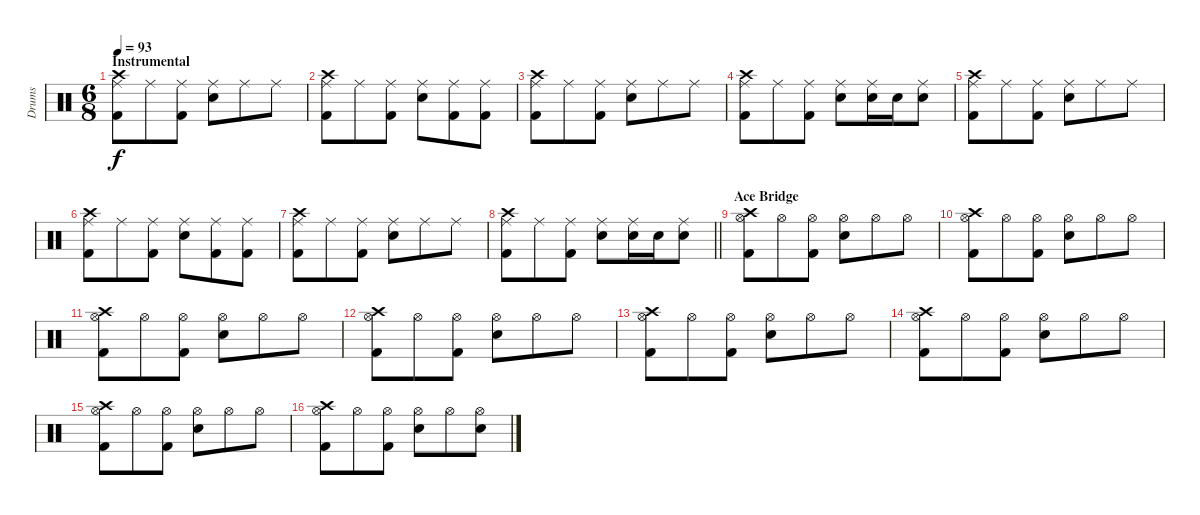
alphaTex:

\track ("Drums" "Drums") {instrument percussion}
\staff {score}
\articulation defaults
\ts (6 8)
\section ("" "Instrumental")
\tempo 93
\clef neutral
\ks c
("Crash high (hit)" "Ride (middle)" "Kick (hit) 2").8{dy f} "Ride (middle)".8 ("Ride (middle)" "Kick (hit) 2").8 ("Ride (middle)" "Snare (hit) 2").8 "Ride (middle)".8 "Ride (middle)".8 |
("Crash high (hit)" "Ride (middle)" "Kick (hit) 2").8 "Ride (middle)".8 ("Ride (middle)" "Kick (hit) 2").8 ("Ride (middle)" "Snare (hit) 2").8 ("Ride (middle)" "Kick (hit) 2").8 ("Ride (middle)" "Kick (hit) 2").8 |
("Crash high (hit)" "Ride (middle)" "Kick (hit) 2").8 "Ride (middle)".8 ("Ride (middle)" "Kick (hit) 2").8 ("Ride (middle)" "Snare (hit) 2").8 "Ride (middle)".8 "Ride (middle)".8 |
("Crash high (hit)" "Ride (middle)" "Kick (hit) 2").8 "Ride (middle)".8 ("Ride (middle)" "Kick (hit) 2").8 ("Ride (middle)" "Snare (hit) 2").8 ("Ride (middle)" "Snare (hit) 2").16 "Snare (hit) 2".16 ("Ride (middle)" "Snare (hit) 2").8 |
("Crash high (hit)" "Ride (middle)" "Kick (hit) 2").8 "Ride (middle)".8 ("Ride (middle)" "Kick (hit) 2").8 ("Ride (middle)" "Snare (hit) 2").8 "Ride (middle)".8 "Ride (middle)".8 |
("Crash high (hit)" "Ride (middle)" "Kick (hit) 2").8 "Ride (middle)".8 ("Ride (middle)" "Kick (hit) 2").8 ("Ride (middle)" "Snare (hit) 2").8 ("Ride (middle)" "Kick (hit) 2").8 ("Ride (middle)" "Kick (hit) 2").8 |
("Crash high (hit)" "Ride (middle)" "Kick (hit) 2").8 "Ride (middle)".8 ("Ride (middle)" "Kick (hit) 2").8 ("Ride (middle)" "Snare (hit) 2").8 "Ride (middle)".8 "Ride (middle)".8 |
\barLineRight lightlight
("Crash high (hit)" "Ride (middle)" "Kick (hit) 2").8 "Ride (middle)".8 ("Ride (middle)" "Kick (hit) 2").8 ("Ride (middle)" "Snare (hit) 2").8 ("Ride (middle)" "Snare (hit) 2").16 "Snare (hit) 2".16 ("Ride (middle)" "Snare (hit) 2").8 |
\section ("" "Ace Bridge")
("Crash high (hit)" "Hi-Hat (open)" "Kick (hit) 2").8 "Hi-Hat (open)".8 ("Hi-Hat (open)" "Kick (hit) 2").8 ("Hi-Hat (open)" "Snare (hit) 2").8 "Hi-Hat (open)".8 "Hi-Hat (open)".8 |
("Crash high (hit)" "Hi-Hat (open)" "Kick (hit) 2").8 "Hi-Hat (open)".8 ("Hi-Hat (open)" "Kick (hit) 2").8 ("Hi-Hat (open)" "Snare (hit) 2").8 "Hi-Hat (open)".8 "Hi-Hat (open)".8 |
("Crash high (hit)" "Hi-Hat (open)" "Kick (hit) 2").8 "Hi-Hat (open)".8 ("Hi-Hat (open)" "Kick (hit) 2").8 ("Hi-Hat (open)" "Snare (hit) 2").8 "Hi-Hat (open)".8 "Hi-Hat (open)".8 |
("Crash high (hit)" "Hi-Hat (open)" "Kick (hit) 2").8 "Hi-Hat (open)".8 ("Hi-Hat (open)" "Kick (hit) 2").8 ("Hi-Hat (open)" "Snare (hit) 2").8 "Hi-Hat (open)".8 "Hi-Hat (open)".8 |
("Crash high (hit)" "Hi-Hat (open)" "Kick (hit) 2").8 "Hi-Hat (open)".8 ("Hi-Hat (open)" "Kick (hit) 2").8 ("Hi-Hat (open)" "Snare (hit) 2").8 "Hi-Hat (open)".8 "Hi-Hat (open)".8 |
("Crash high (hit)" "Hi-Hat (open)" "Kick (hit) 2").8 "Hi-Hat (open)".8 ("Hi-Hat (open)" "Kick (hit) 2").8 ("Hi-Hat (open)" "Snare (hit) 2").8 "Hi-Hat (open)".8 "Hi-Hat (open)".8 |
("Crash high (hit)" "Hi-Hat (open)" "Kick (hit) 2").8 "Hi-Hat (open)".8 ("Hi-Hat (open)" "Kick (hit) 2").8 ("Hi-Hat (open)" "Snare (hit) 2").8 "Hi-Hat (open)".8 "Hi-Hat (open)".8 |
("Crash high (hit)" "Hi-Hat (open)" "Kick (hit) 2").8 "Hi-Hat (open)".8 ("Hi-Hat (open)" "Kick (hit) 2").8 ("Hi-Hat (open)" "Snare (hit) 2").8 "Hi-Hat (open)".8 ("Hi-Hat (open)" "Snare (hit) 2").8
